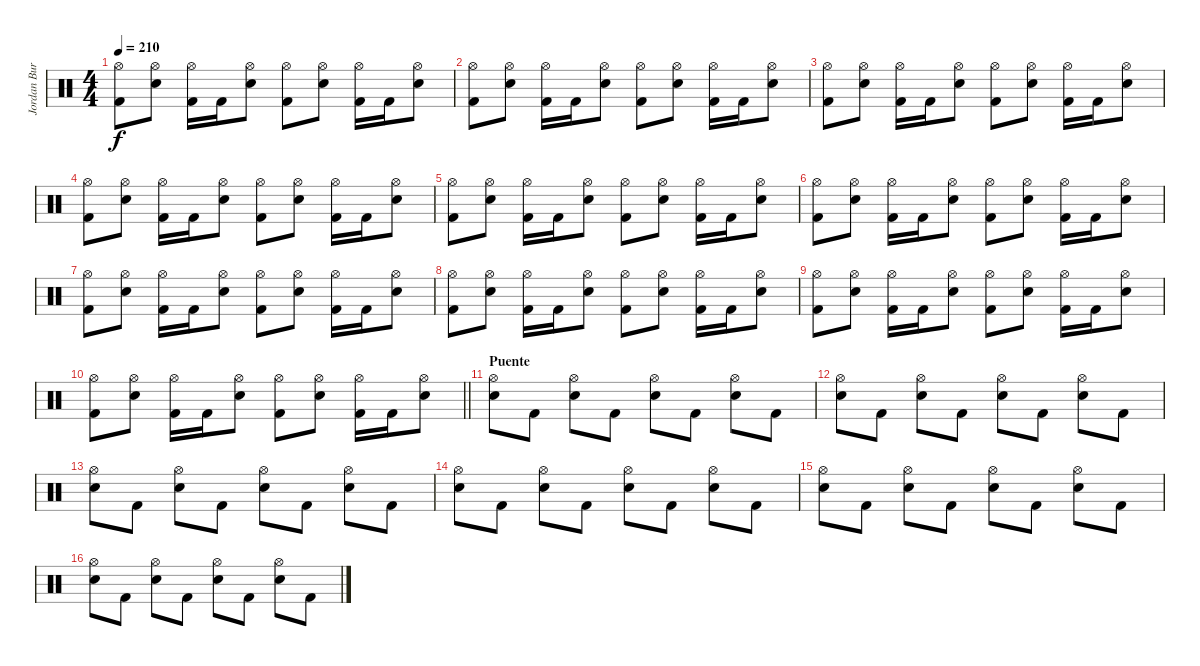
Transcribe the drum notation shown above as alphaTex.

\track ("Jordan Burns" "Jordan Bur") {instrument percussion}
\staff {score}
\articulation defaults
\ts (4 4)
\tempo 210
\clef neutral
\ks c
("Hi-Hat (open)" "Kick (hit) 2").8{dy f} ("Hi-Hat (open)" "Electric Snare (hit)").8 ("Hi-Hat (open)" "Kick (hit) 2").16 "Kick (hit) 2".16 ("Hi-Hat (open)" "Electric Snare (hit)").8 ("Hi-Hat (open)" "Kick (hit) 2").8 ("Hi-Hat (open)" "Electric Snare (hit)").8 ("Hi-Hat (open)" "Kick (hit) 2").16 "Kick (hit) 2".16 ("Hi-Hat (open)" "Electric Snare (hit)").8 |
("Hi-Hat (open)" "Kick (hit) 2").8 ("Hi-Hat (open)" "Electric Snare (hit)").8 ("Hi-Hat (open)" "Kick (hit) 2").16 "Kick (hit) 2".16 ("Hi-Hat (open)" "Electric Snare (hit)").8 ("Hi-Hat (open)" "Kick (hit) 2").8 ("Hi-Hat (open)" "Electric Snare (hit)").8 ("Hi-Hat (open)" "Kick (hit) 2").16 "Kick (hit) 2".16 ("Hi-Hat (open)" "Electric Snare (hit)").8 |
("Hi-Hat (open)" "Kick (hit) 2").8 ("Hi-Hat (open)" "Electric Snare (hit)").8 ("Hi-Hat (open)" "Kick (hit) 2").16 "Kick (hit) 2".16 ("Hi-Hat (open)" "Electric Snare (hit)").8 ("Hi-Hat (open)" "Kick (hit) 2").8 ("Hi-Hat (open)" "Electric Snare (hit)").8 ("Hi-Hat (open)" "Kick (hit) 2").16 "Kick (hit) 2".16 ("Hi-Hat (open)" "Electric Snare (hit)").8 |
("Hi-Hat (open)" "Kick (hit) 2").8 ("Hi-Hat (open)" "Electric Snare (hit)").8 ("Hi-Hat (open)" "Kick (hit) 2").16 "Kick (hit) 2".16 ("Hi-Hat (open)" "Electric Snare (hit)").8 ("Hi-Hat (open)" "Kick (hit) 2").8 ("Hi-Hat (open)" "Electric Snare (hit)").8 ("Hi-Hat (open)" "Kick (hit) 2").16 "Kick (hit) 2".16 ("Hi-Hat (open)" "Electric Snare (hit)").8 |
("Hi-Hat (open)" "Kick (hit) 2").8 ("Hi-Hat (open)" "Electric Snare (hit)").8 ("Hi-Hat (open)" "Kick (hit) 2").16 "Kick (hit) 2".16 ("Hi-Hat (open)" "Electric Snare (hit)").8 ("Hi-Hat (open)" "Kick (hit) 2").8 ("Hi-Hat (open)" "Electric Snare (hit)").8 ("Hi-Hat (open)" "Kick (hit) 2").16 "Kick (hit) 2".16 ("Hi-Hat (open)" "Electric Snare (hit)").8 |
("Hi-Hat (open)" "Kick (hit) 2").8 ("Hi-Hat (open)" "Electric Snare (hit)").8 ("Hi-Hat (open)" "Kick (hit) 2").16 "Kick (hit) 2".16 ("Hi-Hat (open)" "Electric Snare (hit)").8 ("Hi-Hat (open)" "Kick (hit) 2").8 ("Hi-Hat (open)" "Electric Snare (hit)").8 ("Hi-Hat (open)" "Kick (hit) 2").16 "Kick (hit) 2".16 ("Hi-Hat (open)" "Electric Snare (hit)").8 |
("Hi-Hat (open)" "Kick (hit) 2").8 ("Hi-Hat (open)" "Electric Snare (hit)").8 ("Hi-Hat (open)" "Kick (hit) 2").16 "Kick (hit) 2".16 ("Hi-Hat (open)" "Electric Snare (hit)").8 ("Hi-Hat (open)" "Kick (hit) 2").8 ("Hi-Hat (open)" "Electric Snare (hit)").8 ("Hi-Hat (open)" "Kick (hit) 2").16 "Kick (hit) 2".16 ("Hi-Hat (open)" "Electric Snare (hit)").8 |
("Hi-Hat (open)" "Kick (hit) 2").8 ("Hi-Hat (open)" "Electric Snare (hit)").8 ("Hi-Hat (open)" "Kick (hit) 2").16 "Kick (hit) 2".16 ("Hi-Hat (open)" "Electric Snare (hit)").8 ("Hi-Hat (open)" "Kick (hit) 2").8 ("Hi-Hat (open)" "Electric Snare (hit)").8 ("Hi-Hat (open)" "Kick (hit) 2").16 "Kick (hit) 2".16 ("Hi-Hat (open)" "Electric Snare (hit)").8 |
("Hi-Hat (open)" "Kick (hit) 2").8 ("Hi-Hat (open)" "Electric Snare (hit)").8 ("Hi-Hat (open)" "Kick (hit) 2").16 "Kick (hit) 2".16 ("Hi-Hat (open)" "Electric Snare (hit)").8 ("Hi-Hat (open)" "Kick (hit) 2").8 ("Hi-Hat (open)" "Electric Snare (hit)").8 ("Hi-Hat (open)" "Kick (hit) 2").16 "Kick (hit) 2".16 ("Hi-Hat (open)" "Electric Snare (hit)").8 |
\barLineRight lightlight
("Hi-Hat (open)" "Kick (hit) 2").8 ("Hi-Hat (open)" "Electric Snare (hit)").8 ("Hi-Hat (open)" "Kick (hit) 2").16 "Kick (hit) 2".16 ("Hi-Hat (open)" "Electric Snare (hit)").8 ("Hi-Hat (open)" "Kick (hit) 2").8 ("Hi-Hat (open)" "Electric Snare (hit)").8 ("Hi-Hat (open)" "Kick (hit) 2").16 "Kick (hit) 2".16 ("Hi-Hat (open)" "Electric Snare (hit)").8 |
\section ("" "Puente")
("Hi-Hat (open)" "Electric Snare (hit)").8 "Kick (hit) 2".8 ("Hi-Hat (open)" "Electric Snare (hit)").8 "Kick (hit) 2".8 ("Hi-Hat (open)" "Electric Snare (hit)").8 "Kick (hit) 2".8 ("Hi-Hat (open)" "Electric Snare (hit)").8 "Kick (hit) 2".8 |
("Hi-Hat (open)" "Electric Snare (hit)").8 "Kick (hit) 2".8 ("Hi-Hat (open)" "Electric Snare (hit)").8 "Kick (hit) 2".8 ("Hi-Hat (open)" "Electric Snare (hit)").8 "Kick (hit) 2".8 ("Hi-Hat (open)" "Electric Snare (hit)").8 "Kick (hit) 2".8 |
("Hi-Hat (open)" "Electric Snare (hit)").8 "Kick (hit) 2".8 ("Hi-Hat (open)" "Electric Snare (hit)").8 "Kick (hit) 2".8 ("Hi-Hat (open)" "Electric Snare (hit)").8 "Kick (hit) 2".8 ("Hi-Hat (open)" "Electric Snare (hit)").8 "Kick (hit) 2".8 |
("Hi-Hat (open)" "Electric Snare (hit)").8 "Kick (hit) 2".8 ("Hi-Hat (open)" "Electric Snare (hit)").8 "Kick (hit) 2".8 ("Hi-Hat (open)" "Electric Snare (hit)").8 "Kick (hit) 2".8 ("Hi-Hat (open)" "Electric Snare (hit)").8 "Kick (hit) 2".8 |
("Hi-Hat (open)" "Electric Snare (hit)").8 "Kick (hit) 2".8 ("Hi-Hat (open)" "Electric Snare (hit)").8 "Kick (hit) 2".8 ("Hi-Hat (open)" "Electric Snare (hit)").8 "Kick (hit) 2".8 ("Hi-Hat (open)" "Electric Snare (hit)").8 "Kick (hit) 2".8 |
("Hi-Hat (open)" "Electric Snare (hit)").8 "Kick (hit) 2".8 ("Hi-Hat (open)" "Electric Snare (hit)").8 "Kick (hit) 2".8 ("Hi-Hat (open)" "Electric Snare (hit)").8 "Kick (hit) 2".8 ("Hi-Hat (open)" "Electric Snare (hit)").8 "Kick (hit) 2".8
